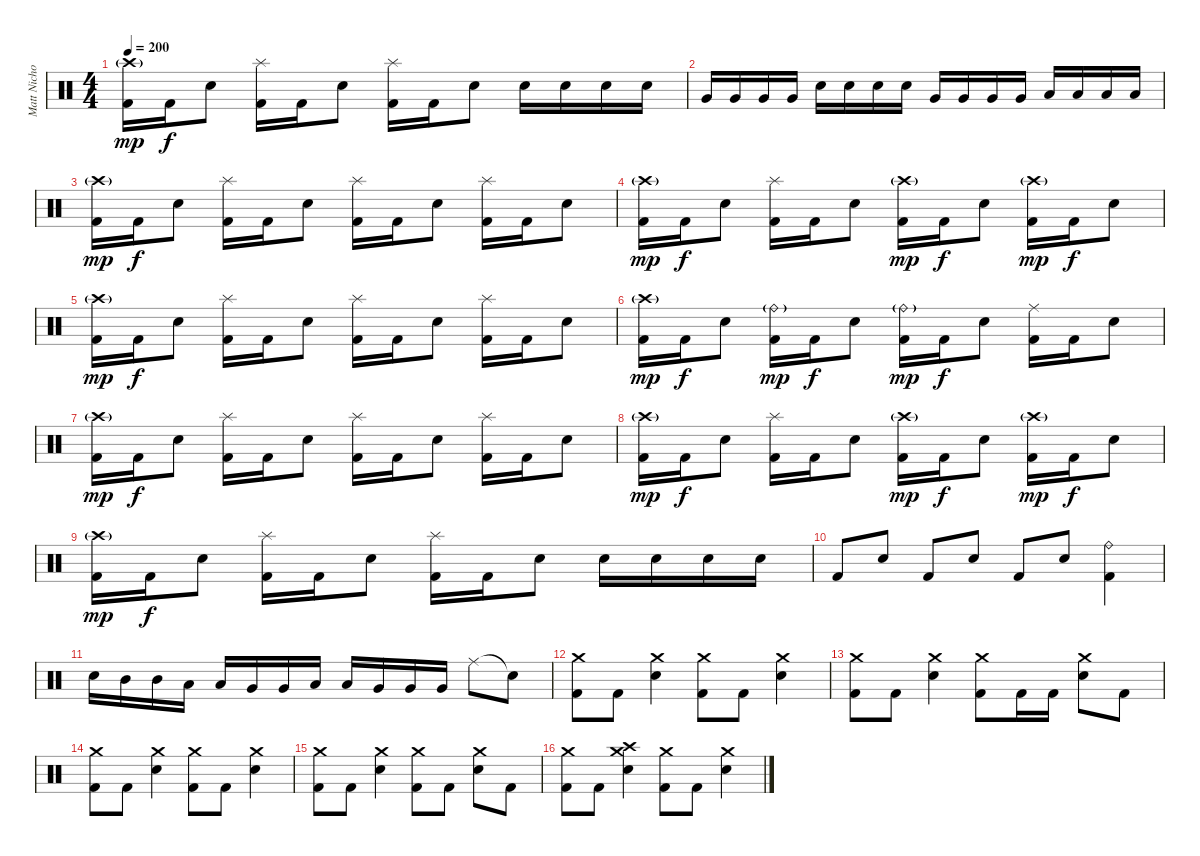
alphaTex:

\track ("Matt Nicholls" "Matt Nicho") {instrument percussion}
\staff {score}
\articulation defaults
\ts (4 4)
\tempo 200
\clef neutral
\ks c
("Crash high (hit)"{g} "Kick (hit) 2").16{dy mp} "Kick (hit) 2".16{dy f} "Snare (hit) 2".8 ("Splash (hit)" "Kick (hit) 2").16 "Kick (hit) 2".16 "Snare (hit) 2".8 ("Splash (hit)" "Kick (hit) 2").16 "Kick (hit) 2".16 "Snare (hit) 2".8 "Snare (hit) 2".16 "Snare (hit) 2".16 "Snare (hit) 2".16 "Snare (hit) 2".16 |
"Very Low Tom (hit)".16 "Very Low Tom (hit)".16 "Very Low Tom (hit)".16 "Very Low Tom (hit)".16 "Snare (hit) 2".16 "Snare (hit) 2".16 "Snare (hit) 2".16 "Snare (hit) 2".16 "Very Low Tom (hit)".16 "Very Low Tom (hit)".16 "Very Low Tom (hit)".16 "Very Low Tom (hit)".16 "Low Floor Tom (hit)".16 "Low Floor Tom (hit)".16 "Low Floor Tom (hit)".16 "Low Floor Tom (hit)".16 |
("Crash high (hit)"{g} "Kick (hit) 2").16{dy mp} "Kick (hit) 2".16{dy f} "Snare (hit) 2".8 ("Splash (hit)" "Kick (hit) 2").16 "Kick (hit) 2".16 "Snare (hit) 2".8 ("Splash (hit)" "Kick (hit) 2").16 "Kick (hit) 2".16 "Snare (hit) 2".8 ("Splash (hit)" "Kick (hit) 2").16 "Kick (hit) 2".16 "Snare (hit) 2".8 |
("Crash high (hit)"{g} "Kick (hit) 2").16{dy mp} "Kick (hit) 2".16{dy f} "Snare (hit) 2".8 ("Splash (hit)" "Kick (hit) 2").16 "Kick (hit) 2".16 "Snare (hit) 2".8 ("Crash high (hit)"{g} "Kick (hit) 2").16{dy mp} "Kick (hit) 2".16{dy f} "Snare (hit) 2".8 ("Crash high (hit)"{g} "Kick (hit) 2").16{dy mp} "Kick (hit) 2".16{dy f} "Snare (hit) 2".8 |
("Crash high (hit)"{g} "Kick (hit) 2").16{dy mp} "Kick (hit) 2".16{dy f} "Snare (hit) 2".8 ("Splash (hit)" "Kick (hit) 2").16 "Kick (hit) 2".16 "Snare (hit) 2".8 ("Splash (hit)" "Kick (hit) 2").16 "Kick (hit) 2".16 "Snare (hit) 2".8 ("Splash (hit)" "Kick (hit) 2").16 "Kick (hit) 2".16 "Snare (hit) 2".8 |
("Crash high (hit)"{g} "Kick (hit) 2").16{dy mp} "Kick (hit) 2".16{dy f} "Snare (hit) 2".8 ("Ride (bell)"{g} "Kick (hit) 2").16{dy mp} "Kick (hit) 2".16{dy f} "Snare (hit) 2".8 ("Ride (bell)"{g} "Kick (hit) 2").16{dy mp} "Kick (hit) 2".16{dy f} "Snare (hit) 2".8 ("Ride (middle)" "Kick (hit) 2").16 "Kick (hit) 2".16 "Snare (hit) 2".8 |
("Crash high (hit)"{g} "Kick (hit) 2").16{dy mp} "Kick (hit) 2".16{dy f} "Snare (hit) 2".8 ("Splash (hit)" "Kick (hit) 2").16 "Kick (hit) 2".16 "Snare (hit) 2".8 ("Splash (hit)" "Kick (hit) 2").16 "Kick (hit) 2".16 "Snare (hit) 2".8 ("Splash (hit)" "Kick (hit) 2").16 "Kick (hit) 2".16 "Snare (hit) 2".8 |
("Crash high (hit)"{g} "Kick (hit) 2").16{dy mp} "Kick (hit) 2".16{dy f} "Snare (hit) 2".8 ("Splash (hit)" "Kick (hit) 2").16 "Kick (hit) 2".16 "Snare (hit) 2".8 ("Crash high (hit)"{g} "Kick (hit) 2").16{dy mp} "Kick (hit) 2".16{dy f} "Snare (hit) 2".8 ("Crash high (hit)"{g} "Kick (hit) 2").16{dy mp} "Kick (hit) 2".16{dy f} "Snare (hit) 2".8 |
("Crash high (hit)"{g} "Kick (hit) 2").16{dy mp} "Kick (hit) 2".16{dy f} "Snare (hit) 2".8 ("Splash (hit)" "Kick (hit) 2").16 "Kick (hit) 2".16 "Snare (hit) 2".8 ("Splash (hit)" "Kick (hit) 2").16 "Kick (hit) 2".16 "Snare (hit) 2".8 "Snare (hit) 2".16 "Snare (hit) 2".16 "Snare (hit) 2".16 "Snare (hit) 2".16 |
"Kick (hit) 2".8 "Snare (hit) 2".8 "Kick (hit) 2".8 "Snare (hit) 2".8 "Kick (hit) 2".8 "Snare (hit) 2".8 ("Ride (bell)" "Kick (hit) 2").4 |
"Snare (hit) 2".16 "Mid Tom (hit)".16 "Mid Tom (hit)".16 "Low Tom (hit)".16 "Low Tom (hit)".16 "Very Low Tom (hit)".16 "Very Low Tom (hit)".16 "Low Floor Tom (hit)".16 "Low Floor Tom (hit)".16 "Very Low Tom (hit)".16 "Very Low Tom (hit)".16 "Very Low Tom (hit)".16 "Ride (middle)".8 "Snare (hit)"{t}.8 |
("Crash medium (hit)" "Kick (hit) 2").8 "Kick (hit) 2".8 ("Crash medium (hit)" "Snare (hit) 2").4 ("Crash medium (hit)" "Kick (hit) 2").8 "Kick (hit) 2".8 ("Crash medium (hit)" "Snare (hit) 2").4 |
("Crash medium (hit)" "Kick (hit) 2").8 "Kick (hit) 2".8 ("Crash medium (hit)" "Snare (hit) 2").4 ("Crash medium (hit)" "Kick (hit) 2").8 "Kick (hit) 2".16 "Kick (hit) 2".16 ("Crash medium (hit)" "Snare (hit) 2").8 "Kick (hit) 2".8 |
("Crash medium (hit)" "Kick (hit) 2").8 "Kick (hit) 2".8 ("Crash medium (hit)" "Snare (hit) 2").4 ("Crash medium (hit)" "Kick (hit) 2").8 "Kick (hit) 2".8 ("Crash medium (hit)" "Snare (hit) 2").4 |
("Crash medium (hit)" "Kick (hit) 2").8 "Kick (hit) 2".8 ("Crash medium (hit)" "Snare (hit) 2").4 ("Crash medium (hit)" "Kick (hit) 2").8 "Kick (hit) 2".8 ("Crash medium (hit)" "Snare (hit) 2").8 "Kick (hit) 2".8 |
("Crash medium (hit)" "Kick (hit) 2").8 "Kick (hit) 2".8 ("Crash high (hit)" "Crash medium (hit)" "Snare (hit) 2").4 ("Crash medium (hit)" "Kick (hit) 2").8 "Kick (hit) 2".8 ("Crash medium (hit)" "Snare (hit) 2").4
